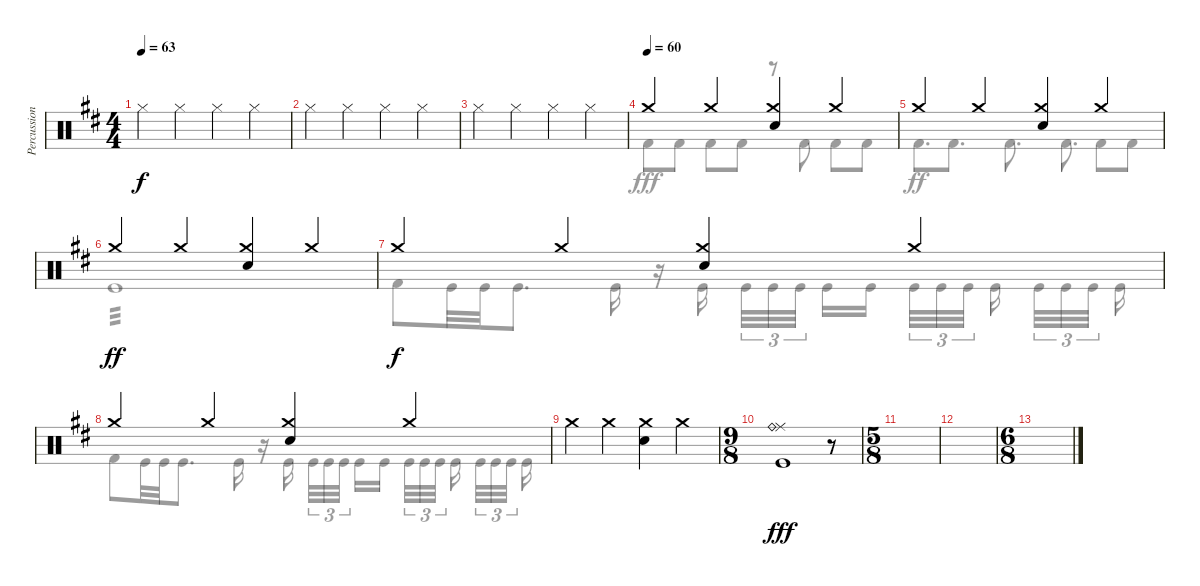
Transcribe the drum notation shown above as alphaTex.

\track ("Percussion" "Percussion") {instrument percussion}
\staff {score}
\articulation defaults
\voice
\ts (4 4)
\tempo 63
\clef neutral
\ks d "Hi-Hat (closed)".4{dy f} "Hi-Hat (closed)".4 "Hi-Hat (closed)".4 "Hi-Hat (closed)".4
|
"Hi-Hat (closed)".4 "Hi-Hat (closed)".4 "Hi-Hat (closed)".4 "Hi-Hat (closed)".4 |
"Hi-Hat (closed)".4 "Hi-Hat (closed)".4 "Hi-Hat (closed)".4 "Hi-Hat (closed)".4 |
\tempo (60)
"Crash medium (hit)".4 "Crash medium (hit)".4 ("Crash medium (hit)" "Electric Snare (hit)").4 "Crash medium (hit)".4 |
"Crash medium (hit)".4 "Crash medium (hit)".4 ("Crash medium (hit)" "Electric Snare (hit)").4 "Crash medium (hit)".4 |
"Crash medium (hit)".4{dy ff} "Crash medium (hit)".4 ("Crash medium (hit)" "Electric Snare (hit)").4 "Crash medium (hit)".4 |
"Crash medium (hit)".4{dy f} "Crash medium (hit)".4 ("Crash medium (hit)" "Electric Snare (hit)").4 "Crash medium (hit)".4 |
"Crash medium (hit)".4 "Crash medium (hit)".4 ("Crash medium (hit)" "Electric Snare (hit)").4 "Crash medium (hit)".4 |
"Crash medium (hit)".4 "Crash medium (hit)".4 ("Crash medium (hit)" "Electric Snare (hit)").4 "Crash medium (hit)".4 |
\ts (9 8)
("Ride (middle)" "Ride (bell)" "Kick (hit)").1{dy fff} r.8 |
\ts (5 8)
|
|
\ts (6 8)
|
|
|
\voice
\clef neutral
\ottava regular
\simile none
\ks d
|
|
|
"Kick (hit) 2".8 "Kick (hit) 2".8 "Kick (hit) 2".8 "Kick (hit) 2".8 r.8 "Kick (hit) 2".8 "Kick (hit) 2".8 "Kick (hit) 2".8 |
"Kick (hit) 2".8{d dy ff} "Kick (hit) 2".8{d} "Kick (hit) 2".8{d} "Kick (hit) 2".8{d} "Kick (hit) 2".8 "Kick (hit) 2".8 |
"Kick (hit)".1{tp 3} |
"Kick (hit) 2".8 "Kick (hit)".32 "Kick (hit)".32 "Kick (hit)".8{d} "Kick (hit)".16 r.16 "Kick (hit)".16{beam splitsecondary} "Kick (hit)".32{tu (3 2)} "Kick (hit)".32{tu (3 2)} "Kick (hit)".32{tu (3 2) beam splitsecondary} "Kick (hit)".16 "Kick (hit)".16 "Kick (hit)".32{tu (3 2)} "Kick (hit)".32{tu (3 2)} "Kick (hit)".32{tu (3 2) beam splitsecondary} "Kick (hit)".16{beam splitsecondary} "Kick (hit)".32{tu (3 2)} "Kick (hit)".32{tu (3 2)} "Kick (hit)".32{tu (3 2) beam splitsecondary} "Kick (hit)".16 |
"Kick (hit) 2".8 "Kick (hit)".32 "Kick (hit)".32 "Kick (hit)".8{d} "Kick (hit)".16 r.16 "Kick (hit)".16{beam splitsecondary} "Kick (hit)".32{tu (3 2)} "Kick (hit)".32{tu (3 2)} "Kick (hit)".32{tu (3 2) beam splitsecondary} "Kick (hit)".16 "Kick (hit)".16 "Kick (hit)".32{tu (3 2)} "Kick (hit)".32{tu (3 2)} "Kick (hit)".32{tu (3 2) beam splitsecondary} "Kick (hit)".16{beam splitsecondary} "Kick (hit)".32{tu (3 2)} "Kick (hit)".32{tu (3 2)} "Kick (hit)".32{tu (3 2) beam splitsecondary} "Kick (hit)".16 |
|
|
|
|
|
|
|
